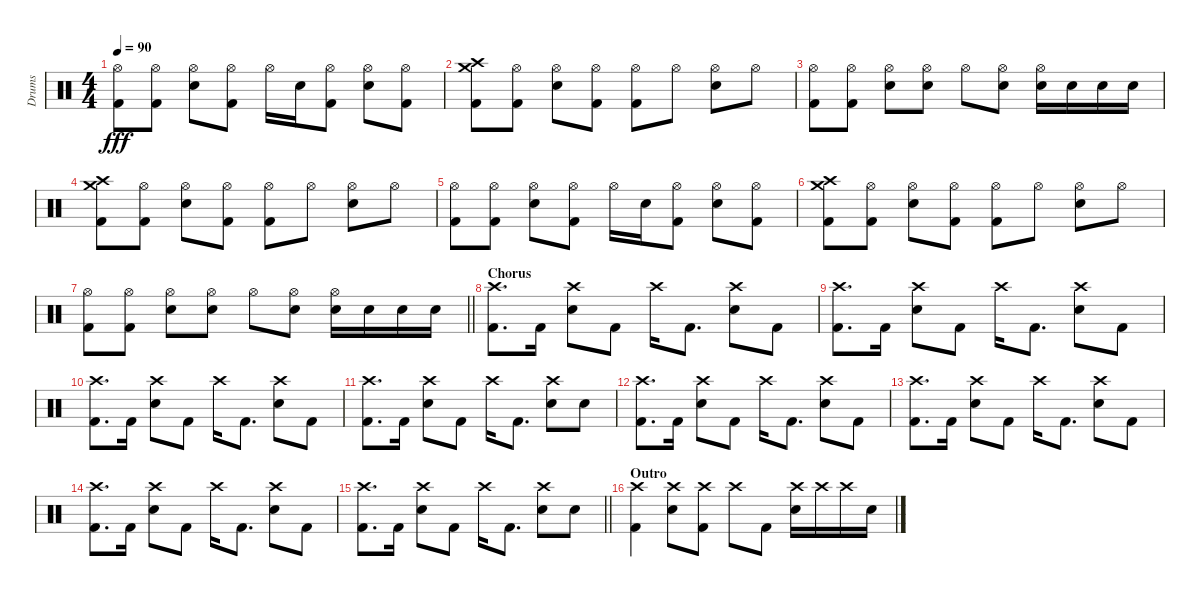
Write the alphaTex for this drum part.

\track ("Drums" "Drums") {instrument percussion}
\staff {score}
\articulation defaults
\ts (4 4)
\tempo 90
\clef neutral
\ks c
("Hi-Hat (open)" "Kick (hit) 2").8{dy fff} ("Hi-Hat (open)" "Kick (hit) 2").8 ("Hi-Hat (open)" "Electric Snare (hit)").8 ("Hi-Hat (open)" "Kick (hit) 2").8 "Hi-Hat (open)".16 "Electric Snare (hit)".16 ("Hi-Hat (open)" "Kick (hit) 2").8 ("Hi-Hat (open)" "Electric Snare (hit)").8 ("Hi-Hat (open)" "Kick (hit) 2").8 |
("Crash high (hit)" "Crash medium (hit)" "Kick (hit) 2").8 ("Hi-Hat (open)" "Kick (hit) 2").8 ("Hi-Hat (open)" "Electric Snare (hit)").8 ("Hi-Hat (open)" "Kick (hit) 2").8 ("Hi-Hat (open)" "Kick (hit) 2").8 "Hi-Hat (open)".8 ("Hi-Hat (open)" "Electric Snare (hit)").8 "Hi-Hat (open)".8 |
("Hi-Hat (open)" "Kick (hit) 2").8 ("Hi-Hat (open)" "Kick (hit) 2").8 ("Hi-Hat (open)" "Electric Snare (hit)").8 ("Hi-Hat (open)" "Electric Snare (hit)").8 "Hi-Hat (open)".8 ("Hi-Hat (open)" "Electric Snare (hit)").8 ("Hi-Hat (open)" "Electric Snare (hit)").16 "Electric Snare (hit)".16 "Electric Snare (hit)".16 "Electric Snare (hit)".16 |
("Crash high (hit)" "Crash medium (hit)" "Kick (hit) 2").8 ("Hi-Hat (open)" "Kick (hit) 2").8 ("Hi-Hat (open)" "Electric Snare (hit)").8 ("Hi-Hat (open)" "Kick (hit) 2").8 ("Hi-Hat (open)" "Kick (hit) 2").8 "Hi-Hat (open)".8 ("Hi-Hat (open)" "Electric Snare (hit)").8 "Hi-Hat (open)".8 |
("Hi-Hat (open)" "Kick (hit) 2").8 ("Hi-Hat (open)" "Kick (hit) 2").8 ("Hi-Hat (open)" "Electric Snare (hit)").8 ("Hi-Hat (open)" "Kick (hit) 2").8 "Hi-Hat (open)".16 "Electric Snare (hit)".16 ("Hi-Hat (open)" "Kick (hit) 2").8 ("Hi-Hat (open)" "Electric Snare (hit)").8 ("Hi-Hat (open)" "Kick (hit) 2").8 |
("Crash high (hit)" "Crash medium (hit)" "Kick (hit) 2").8 ("Hi-Hat (open)" "Kick (hit) 2").8 ("Hi-Hat (open)" "Electric Snare (hit)").8 ("Hi-Hat (open)" "Kick (hit) 2").8 ("Hi-Hat (open)" "Kick (hit) 2").8 "Hi-Hat (open)".8 ("Hi-Hat (open)" "Electric Snare (hit)").8 "Hi-Hat (open)".8 |
\barLineRight lightlight
("Hi-Hat (open)" "Kick (hit) 2").8 ("Hi-Hat (open)" "Kick (hit) 2").8 ("Hi-Hat (open)" "Electric Snare (hit)").8 ("Hi-Hat (open)" "Electric Snare (hit)").8 "Hi-Hat (open)".8 ("Hi-Hat (open)" "Electric Snare (hit)").8 ("Hi-Hat (open)" "Electric Snare (hit)").16 "Electric Snare (hit)".16 "Electric Snare (hit)".16 "Electric Snare (hit)".16 |
\section ("" "Chorus")
("Crash high (hit)" "Kick (hit) 2").8{d} "Kick (hit) 2".16 ("Crash high (hit)" "Electric Snare (hit)").8 "Kick (hit) 2".8 "Crash high (hit)".16 "Kick (hit) 2".8{d} ("Crash high (hit)" "Electric Snare (hit)").8 "Kick (hit) 2".8 |
("Crash high (hit)" "Kick (hit) 2").8{d} "Kick (hit) 2".16 ("Crash high (hit)" "Electric Snare (hit)").8 "Kick (hit) 2".8 "Crash high (hit)".16 "Kick (hit) 2".8{d} ("Crash high (hit)" "Electric Snare (hit)").8 "Kick (hit) 2".8 |
("Crash high (hit)" "Kick (hit) 2").8{d} "Kick (hit) 2".16 ("Crash high (hit)" "Electric Snare (hit)").8 "Kick (hit) 2".8 "Crash high (hit)".16 "Kick (hit) 2".8{d} ("Crash high (hit)" "Electric Snare (hit)").8 "Kick (hit) 2".8 |
("Crash high (hit)" "Kick (hit) 2").8{d} "Kick (hit) 2".16 ("Crash high (hit)" "Electric Snare (hit)").8 "Kick (hit) 2".8 "Crash high (hit)".16 "Kick (hit) 2".8{d} ("Crash high (hit)" "Electric Snare (hit)").8 "Electric Snare (hit)".8 |
("Crash high (hit)" "Kick (hit) 2").8{d} "Kick (hit) 2".16 ("Crash high (hit)" "Electric Snare (hit)").8 "Kick (hit) 2".8 "Crash high (hit)".16 "Kick (hit) 2".8{d} ("Crash high (hit)" "Electric Snare (hit)").8 "Kick (hit) 2".8 |
("Crash high (hit)" "Kick (hit) 2").8{d} "Kick (hit) 2".16 ("Crash high (hit)" "Electric Snare (hit)").8 "Kick (hit) 2".8 "Crash high (hit)".16 "Kick (hit) 2".8{d} ("Crash high (hit)" "Electric Snare (hit)").8 "Kick (hit) 2".8 |
("Crash high (hit)" "Kick (hit) 2").8{d} "Kick (hit) 2".16 ("Crash high (hit)" "Electric Snare (hit)").8 "Kick (hit) 2".8 "Crash high (hit)".16 "Kick (hit) 2".8{d} ("Crash high (hit)" "Electric Snare (hit)").8 "Kick (hit) 2".8 |
\barLineRight lightlight
("Crash high (hit)" "Kick (hit) 2").8{d} "Kick (hit) 2".16 ("Crash high (hit)" "Electric Snare (hit)").8 "Kick (hit) 2".8 "Crash high (hit)".16 "Kick (hit) 2".8{d} ("Crash high (hit)" "Electric Snare (hit)").8 "Electric Snare (hit)".8 |
\section ("" "Outro")
("Crash high (hit)" "Kick (hit) 2").4 ("Crash high (hit)" "Electric Snare (hit)").8 ("Crash high (hit)" "Kick (hit) 2").8 "Crash high (hit)".8 "Kick (hit) 2".8 ("Crash high (hit)" "Electric Snare (hit)").16 "Crash high (hit)".16 "Crash high (hit)".16 "Electric Snare (hit)".16
